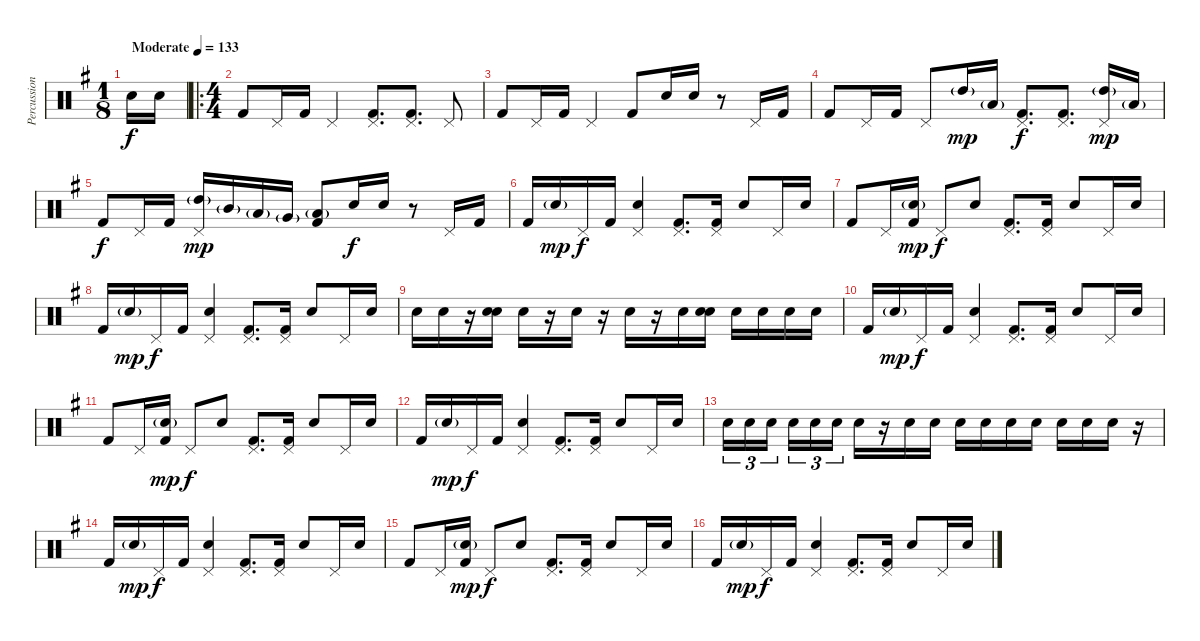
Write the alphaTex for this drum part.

\track ("Percussion" "Percussion") {instrument percussion bank 177}
\staff {score}
\articulation defaults
\ts (1 8)
\tempo (133 "Moderate")
\clef neutral
\ks eminor "Hand Clap (hit)".16{dy f} "Hand Clap (hit)".16
|
\ro
\ts (4 4)
"Kick (hit) 2".8 "Pedal Hi-Hat (hit)".16 "Kick (hit) 2".16 "Pedal Hi-Hat (hit)".4 ("Pedal Hi-Hat (hit)" "Kick (hit) 2").8{d} ("Pedal Hi-Hat (hit)" "Kick (hit) 2").8{d} "Pedal Hi-Hat (hit)".8 |
"Kick (hit) 2".8 "Pedal Hi-Hat (hit)".16 "Kick (hit) 2".16 "Pedal Hi-Hat (hit)".4 "Kick (hit) 2".8 "Hand Clap (hit)".16 "Hand Clap (hit)".16 r.8 "Pedal Hi-Hat (hit)".16 "Kick (hit) 2".16 |
"Kick (hit) 2".8 "Pedal Hi-Hat (hit)".16 "Kick (hit) 2".16 "Pedal Hi-Hat (hit)".8 "High Tom (hit)"{g}.16{dy mp} "Low Tom (hit)"{g}.16 ("Pedal Hi-Hat (hit)" "Kick (hit) 2").8{d dy f} ("Pedal Hi-Hat (hit)" "Kick (hit) 2").8{d} ("High Tom (hit)"{g} "Pedal Hi-Hat (hit)").16{dy mp} "Low Tom (hit)"{g}.16 |
"Kick (hit) 2".8{dy f} "Pedal Hi-Hat (hit)".16 "Kick (hit) 2".16 ("High Tom (hit)"{g} "Pedal Hi-Hat (hit)").16{dy mp} "Mid Tom (hit)"{g}.16 "Low Tom (hit)"{g}.16 "Very Low Tom (hit)"{g}.16 ("Low Floor Tom (hit)"{g} "Kick (hit) 2").8 "Hand Clap (hit)".16{dy f} "Hand Clap (hit)".16 r.8 "Pedal Hi-Hat (hit)".16 "Kick (hit) 2".16 |
"Kick (hit) 2".16 "Electric Snare (hit)"{g}.16{dy mp} "Pedal Hi-Hat (hit)".16{dy f} "Kick (hit) 2".16 ("Pedal Hi-Hat (hit)" "Hand Clap (hit)").4 ("Pedal Hi-Hat (hit)" "Kick (hit) 2").8{d} ("Pedal Hi-Hat (hit)" "Kick (hit) 2").16 "Hand Clap (hit)".8 "Pedal Hi-Hat (hit)".16 "Hand Clap (hit)".16 |
"Kick (hit) 2".8 "Pedal Hi-Hat (hit)".16 ("Electric Snare (hit)"{g} "Kick (hit) 2").16{dy mp} "Pedal Hi-Hat (hit)".8{dy f} "Electric Snare (hit)".8 ("Pedal Hi-Hat (hit)" "Kick (hit) 2").8{d} ("Pedal Hi-Hat (hit)" "Kick (hit) 2").16 "Hand Clap (hit)".8 "Pedal Hi-Hat (hit)".16 "Hand Clap (hit)".16 |
"Kick (hit) 2".16 "Electric Snare (hit)"{g}.16{dy mp} "Pedal Hi-Hat (hit)".16{dy f} "Kick (hit) 2".16 ("Pedal Hi-Hat (hit)" "Hand Clap (hit)").4 ("Pedal Hi-Hat (hit)" "Kick (hit) 2").8{d} ("Pedal Hi-Hat (hit)" "Kick (hit) 2").16 "Hand Clap (hit)".8 "Pedal Hi-Hat (hit)".16 "Hand Clap (hit)".16 |
"Electric Snare (hit)".16 "Electric Snare (hit)".16 r.16 ("Hand Clap (hit)" "Electric Snare (hit)").16 "Electric Snare (hit)".16 r.16 "Electric Snare (hit)".16 r.16 "Electric Snare (hit)".16 r.16 "Electric Snare (hit)".16 ("Hand Clap (hit)" "Electric Snare (hit)").16 "Electric Snare (hit)".16 "Electric Snare (hit)".16 "Electric Snare (hit)".16 "Electric Snare (hit)".16 |
"Kick (hit) 2".16 "Electric Snare (hit)"{g}.16{dy mp} "Pedal Hi-Hat (hit)".16{dy f} "Kick (hit) 2".16 ("Pedal Hi-Hat (hit)" "Hand Clap (hit)").4 ("Pedal Hi-Hat (hit)" "Kick (hit) 2").8{d} ("Pedal Hi-Hat (hit)" "Kick (hit) 2").16 "Hand Clap (hit)".8 "Pedal Hi-Hat (hit)".16 "Hand Clap (hit)".16 |
"Kick (hit) 2".8 "Pedal Hi-Hat (hit)".16 ("Electric Snare (hit)"{g} "Kick (hit) 2").16{dy mp} "Pedal Hi-Hat (hit)".8{dy f} "Electric Snare (hit)".8 ("Pedal Hi-Hat (hit)" "Kick (hit) 2").8{d} ("Pedal Hi-Hat (hit)" "Kick (hit) 2").16 "Hand Clap (hit)".8 "Pedal Hi-Hat (hit)".16 "Hand Clap (hit)".16 |
"Kick (hit) 2".16 "Electric Snare (hit)"{g}.16{dy mp} "Pedal Hi-Hat (hit)".16{dy f} "Kick (hit) 2".16 ("Pedal Hi-Hat (hit)" "Hand Clap (hit)").4 ("Pedal Hi-Hat (hit)" "Kick (hit) 2").8{d} ("Pedal Hi-Hat (hit)" "Kick (hit) 2").16 "Hand Clap (hit)".8 "Pedal Hi-Hat (hit)".16 "Hand Clap (hit)".16 |
"Hand Clap (hit)".16{tu (3 2)} "Hand Clap (hit)".16{tu (3 2)} "Hand Clap (hit)".16{tu (3 2) beam splitsecondary} "Hand Clap (hit)".16{tu (3 2)} "Hand Clap (hit)".16{tu (3 2)} "Hand Clap (hit)".16{tu (3 2)} "Hand Clap (hit)".16 r.16 "Hand Clap (hit)".16 "Hand Clap (hit)".16 "Hand Clap (hit)".16 "Hand Clap (hit)".16 "Hand Clap (hit)".16 "Hand Clap (hit)".16 "Hand Clap (hit)".16 "Hand Clap (hit)".16 "Hand Clap (hit)".16 r.16 |
"Kick (hit) 2".16 "Electric Snare (hit)"{g}.16{dy mp} "Pedal Hi-Hat (hit)".16{dy f} "Kick (hit) 2".16 ("Pedal Hi-Hat (hit)" "Hand Clap (hit)").4 ("Pedal Hi-Hat (hit)" "Kick (hit) 2").8{d} ("Pedal Hi-Hat (hit)" "Kick (hit) 2").16 "Hand Clap (hit)".8 "Pedal Hi-Hat (hit)".16 "Hand Clap (hit)".16 |
"Kick (hit) 2".8 "Pedal Hi-Hat (hit)".16 ("Electric Snare (hit)"{g} "Kick (hit) 2").16{dy mp} "Pedal Hi-Hat (hit)".8{dy f} "Electric Snare (hit)".8 ("Pedal Hi-Hat (hit)" "Kick (hit) 2").8{d} ("Pedal Hi-Hat (hit)" "Kick (hit) 2").16 "Hand Clap (hit)".8 "Pedal Hi-Hat (hit)".16 "Hand Clap (hit)".16 |
"Kick (hit) 2".16 "Electric Snare (hit)"{g}.16{dy mp} "Pedal Hi-Hat (hit)".16{dy f} "Kick (hit) 2".16 ("Pedal Hi-Hat (hit)" "Hand Clap (hit)").4 ("Pedal Hi-Hat (hit)" "Kick (hit) 2").8{d} ("Pedal Hi-Hat (hit)" "Kick (hit) 2").16 "Hand Clap (hit)".8 "Pedal Hi-Hat (hit)".16 "Hand Clap (hit)".16
